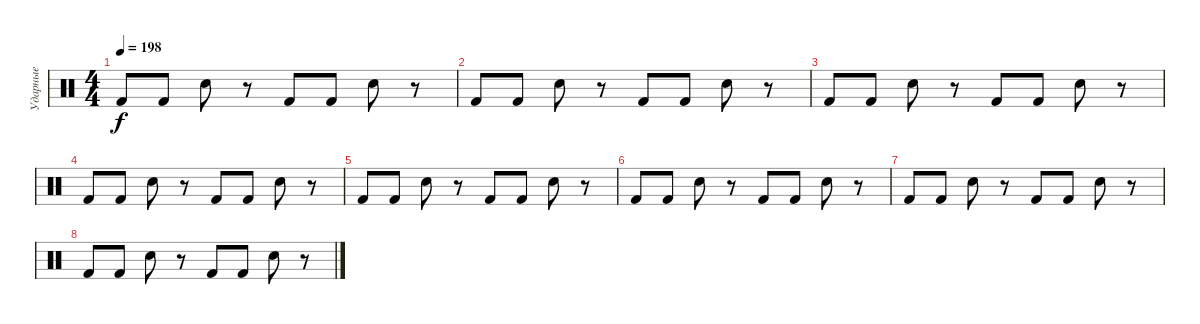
\track ("Ударные" "Ударные") {instrument percussion}
\staff {score}
\articulation defaults
\ts (4 4)
\tempo 198
\clef neutral
\ks c "Kick (hit) 2".8{dy f} "Kick (hit) 2".8 "Snare (hit) 2".8
r.8 "Kick (hit) 2".8 "Kick (hit) 2".8 "Snare (hit) 2".8 r.8 |
"Kick (hit) 2".8 "Kick (hit) 2".8 "Snare (hit) 2".8 r.8 "Kick (hit) 2".8 "Kick (hit) 2".8 "Snare (hit) 2".8 r.8 |
"Kick (hit) 2".8 "Kick (hit) 2".8 "Snare (hit) 2".8 r.8 "Kick (hit) 2".8 "Kick (hit) 2".8 "Snare (hit) 2".8 r.8 |
"Kick (hit) 2".8 "Kick (hit) 2".8 "Snare (hit) 2".8 r.8 "Kick (hit) 2".8 "Kick (hit) 2".8 "Snare (hit) 2".8 r.8 |
"Kick (hit) 2".8 "Kick (hit) 2".8 "Snare (hit) 2".8 r.8 "Kick (hit) 2".8 "Kick (hit) 2".8 "Snare (hit) 2".8 r.8 |
"Kick (hit) 2".8 "Kick (hit) 2".8 "Snare (hit) 2".8 r.8 "Kick (hit) 2".8 "Kick (hit) 2".8 "Snare (hit) 2".8 r.8 |
"Kick (hit) 2".8 "Kick (hit) 2".8 "Snare (hit) 2".8 r.8 "Kick (hit) 2".8 "Kick (hit) 2".8 "Snare (hit) 2".8 r.8 |
"Kick (hit) 2".8 "Kick (hit) 2".8 "Snare (hit) 2".8 r.8 "Kick (hit) 2".8 "Kick (hit) 2".8 "Snare (hit) 2".8 r.8
